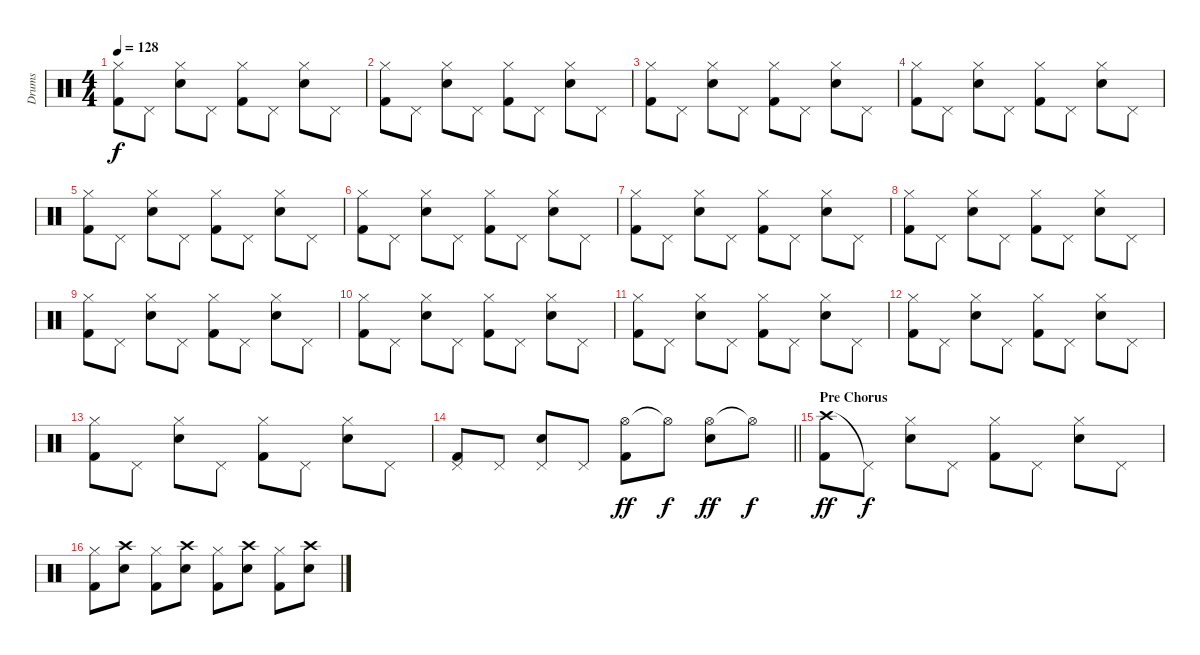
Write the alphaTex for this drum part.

\track ("Drums" "Drums") {instrument percussion}
\staff {score}
\articulation defaults
\ts (4 4)
\tempo 128
\clef neutral
\ks c
("Hi-Hat (closed)" "Kick (hit) 2").8{dy f} "Pedal Hi-Hat (hit)".8 ("Hi-Hat (closed)" "Snare (hit) 2").8 "Pedal Hi-Hat (hit)".8 ("Hi-Hat (closed)" "Kick (hit) 2").8 "Pedal Hi-Hat (hit)".8 ("Hi-Hat (closed)" "Snare (hit) 2").8 "Pedal Hi-Hat (hit)".8 |
("Hi-Hat (closed)" "Kick (hit) 2").8 "Pedal Hi-Hat (hit)".8 ("Hi-Hat (closed)" "Snare (hit) 2").8 "Pedal Hi-Hat (hit)".8 ("Hi-Hat (closed)" "Kick (hit) 2").8 "Pedal Hi-Hat (hit)".8 ("Hi-Hat (closed)" "Snare (hit) 2").8 "Pedal Hi-Hat (hit)".8 |
("Hi-Hat (closed)" "Kick (hit) 2").8 "Pedal Hi-Hat (hit)".8 ("Hi-Hat (closed)" "Snare (hit) 2").8 "Pedal Hi-Hat (hit)".8 ("Hi-Hat (closed)" "Kick (hit) 2").8 "Pedal Hi-Hat (hit)".8 ("Hi-Hat (closed)" "Snare (hit) 2").8 "Pedal Hi-Hat (hit)".8 |
("Hi-Hat (closed)" "Kick (hit) 2").8 "Pedal Hi-Hat (hit)".8 ("Hi-Hat (closed)" "Snare (hit) 2").8 "Pedal Hi-Hat (hit)".8 ("Hi-Hat (closed)" "Kick (hit) 2").8 "Pedal Hi-Hat (hit)".8 ("Hi-Hat (closed)" "Snare (hit) 2").8 "Pedal Hi-Hat (hit)".8 |
("Hi-Hat (closed)" "Kick (hit) 2").8 "Pedal Hi-Hat (hit)".8 ("Hi-Hat (closed)" "Snare (hit) 2").8 "Pedal Hi-Hat (hit)".8 ("Hi-Hat (closed)" "Kick (hit) 2").8 "Pedal Hi-Hat (hit)".8 ("Hi-Hat (closed)" "Snare (hit) 2").8 "Pedal Hi-Hat (hit)".8 |
("Hi-Hat (closed)" "Kick (hit) 2").8 "Pedal Hi-Hat (hit)".8 ("Hi-Hat (closed)" "Snare (hit) 2").8 "Pedal Hi-Hat (hit)".8 ("Hi-Hat (closed)" "Kick (hit) 2").8 "Pedal Hi-Hat (hit)".8 ("Hi-Hat (closed)" "Snare (hit) 2").8 "Pedal Hi-Hat (hit)".8 |
("Hi-Hat (closed)" "Kick (hit) 2").8 "Pedal Hi-Hat (hit)".8 ("Hi-Hat (closed)" "Snare (hit) 2").8 "Pedal Hi-Hat (hit)".8 ("Hi-Hat (closed)" "Kick (hit) 2").8 "Pedal Hi-Hat (hit)".8 ("Hi-Hat (closed)" "Snare (hit) 2").8 "Pedal Hi-Hat (hit)".8 |
("Hi-Hat (closed)" "Kick (hit) 2").8 "Pedal Hi-Hat (hit)".8 ("Hi-Hat (closed)" "Snare (hit) 2").8 "Pedal Hi-Hat (hit)".8 ("Hi-Hat (closed)" "Kick (hit) 2").8 "Pedal Hi-Hat (hit)".8 ("Hi-Hat (closed)" "Snare (hit) 2").8 "Pedal Hi-Hat (hit)".8 |
("Hi-Hat (closed)" "Kick (hit) 2").8 "Pedal Hi-Hat (hit)".8 ("Hi-Hat (closed)" "Snare (hit) 2").8 "Pedal Hi-Hat (hit)".8 ("Hi-Hat (closed)" "Kick (hit) 2").8 "Pedal Hi-Hat (hit)".8 ("Hi-Hat (closed)" "Snare (hit) 2").8 "Pedal Hi-Hat (hit)".8 |
("Hi-Hat (closed)" "Kick (hit) 2").8 "Pedal Hi-Hat (hit)".8 ("Hi-Hat (closed)" "Snare (hit) 2").8 "Pedal Hi-Hat (hit)".8 ("Hi-Hat (closed)" "Kick (hit) 2").8 "Pedal Hi-Hat (hit)".8 ("Hi-Hat (closed)" "Snare (hit) 2").8 "Pedal Hi-Hat (hit)".8 |
("Hi-Hat (closed)" "Kick (hit) 2").8 "Pedal Hi-Hat (hit)".8 ("Hi-Hat (closed)" "Snare (hit) 2").8 "Pedal Hi-Hat (hit)".8 ("Hi-Hat (closed)" "Kick (hit) 2").8 "Pedal Hi-Hat (hit)".8 ("Hi-Hat (closed)" "Snare (hit) 2").8 "Pedal Hi-Hat (hit)".8 |
("Hi-Hat (closed)" "Kick (hit) 2").8 "Pedal Hi-Hat (hit)".8 ("Hi-Hat (closed)" "Snare (hit) 2").8 "Pedal Hi-Hat (hit)".8 ("Hi-Hat (closed)" "Kick (hit) 2").8 "Pedal Hi-Hat (hit)".8 ("Hi-Hat (closed)" "Snare (hit) 2").8 "Pedal Hi-Hat (hit)".8 |
("Hi-Hat (closed)" "Kick (hit) 2").8 "Pedal Hi-Hat (hit)".8 ("Hi-Hat (closed)" "Snare (hit) 2").8 "Pedal Hi-Hat (hit)".8 ("Hi-Hat (closed)" "Kick (hit) 2").8 "Pedal Hi-Hat (hit)".8 ("Hi-Hat (closed)" "Snare (hit) 2").8 "Pedal Hi-Hat (hit)".8 |
\barLineRight lightlight
("Pedal Hi-Hat (hit)" "Kick (hit) 2").8 "Pedal Hi-Hat (hit)".8 ("Pedal Hi-Hat (hit)" "Snare (hit) 2").8 "Pedal Hi-Hat (hit)".8 ("Hi-Hat (open)" "Kick (hit) 2").8{dy ff} "Hi-Hat (open)"{t}.8{dy f} ("Hi-Hat (open)" "Snare (hit) 2").8{dy ff} "Hi-Hat (open)"{t}.8{dy f} |
\section ("" "Pre Chorus")
("Crash high (hit)" "Kick (hit) 2").8{dy ff} "Pedal Hi-Hat (hit)"{t}.8{dy f} ("Hi-Hat (closed)" "Snare (hit) 2").8 "Pedal Hi-Hat (hit)".8 ("Hi-Hat (closed)" "Kick (hit) 2").8 "Pedal Hi-Hat (hit)".8 ("Hi-Hat (closed)" "Snare (hit) 2").8 "Pedal Hi-Hat (hit)".8 |
("Hi-Hat (closed)" "Kick (hit) 2").8 ("Crash high (hit)" "Snare (hit) 2").8 ("Hi-Hat (closed)" "Kick (hit) 2").8 ("Crash high (hit)" "Snare (hit) 2").8 ("Hi-Hat (closed)" "Kick (hit) 2").8 ("Crash high (hit)" "Snare (hit) 2").8 ("Hi-Hat (closed)" "Kick (hit) 2").8 ("Crash high (hit)" "Snare (hit) 2").8
